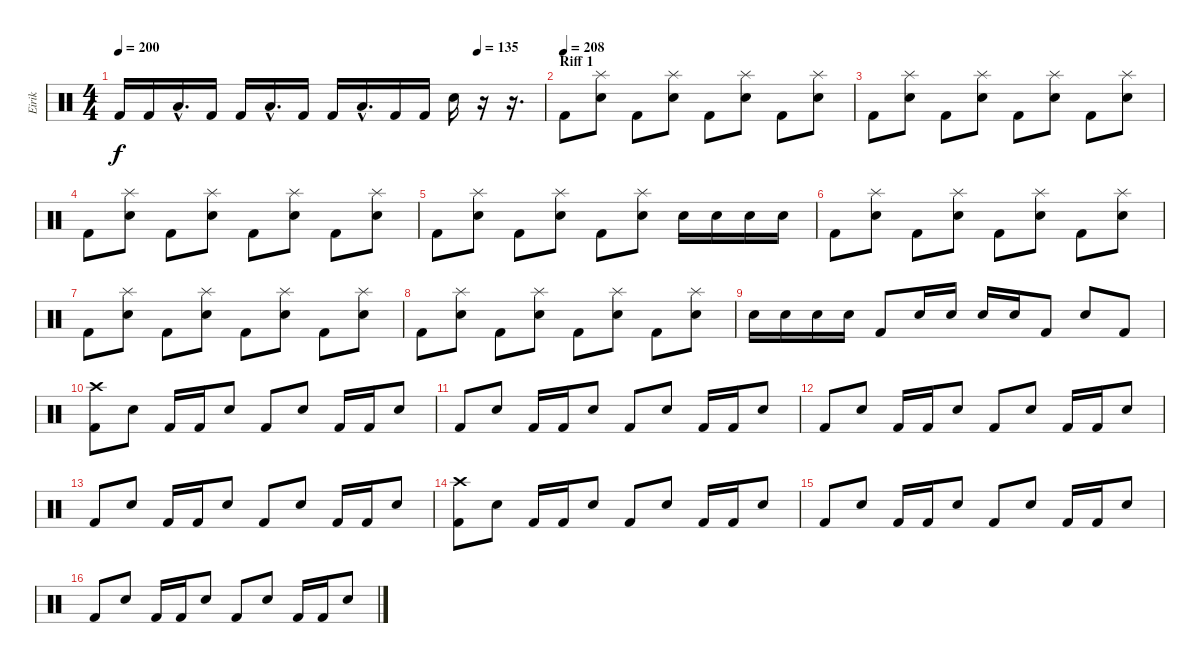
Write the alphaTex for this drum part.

\track ("Eirik" "Eirik") {instrument percussion}
\staff {score}
\articulation defaults
\ts (4 4)
\tempo 200
\tempo (135 0.84375)
\tempo 200
\clef neutral
\ks c "Kick (hit) 2".16{dy f} "Kick (hit) 2".16 "Low Tom (hit)"{hac}.16{d} "Kick (hit) 2".16 "Kick (hit) 2".16 "Low Tom (hit)"{hac}.16{d} "Kick (hit) 2".16 "Kick (hit) 2".16 "Low Tom (hit)"{hac}.16{d} "Kick (hit) 2".16 "Kick (hit) 2".16 "Snare (hit) 2".16
r.16 r.16{d} |
\section ("" "Riff 1")
\tempo (208)
"Kick (hit) 2".8 ("Splash (hit)" "Snare (hit) 2").8 "Kick (hit) 2".8 ("Splash (hit)" "Snare (hit) 2").8 "Kick (hit) 2".8 ("Splash (hit)" "Snare (hit) 2").8 "Kick (hit) 2".8 ("Splash (hit)" "Snare (hit) 2").8 |
"Kick (hit) 2".8 ("Splash (hit)" "Snare (hit) 2").8 "Kick (hit) 2".8 ("Splash (hit)" "Snare (hit) 2").8 "Kick (hit) 2".8 ("Splash (hit)" "Snare (hit) 2").8 "Kick (hit) 2".8 ("Splash (hit)" "Snare (hit) 2").8 |
"Kick (hit) 2".8 ("Splash (hit)" "Snare (hit) 2").8 "Kick (hit) 2".8 ("Splash (hit)" "Snare (hit) 2").8 "Kick (hit) 2".8 ("Splash (hit)" "Snare (hit) 2").8 "Kick (hit) 2".8 ("Splash (hit)" "Snare (hit) 2").8 |
"Kick (hit) 2".8 ("Splash (hit)" "Snare (hit) 2").8 "Kick (hit) 2".8 ("Splash (hit)" "Snare (hit) 2").8 "Kick (hit) 2".8 ("Splash (hit)" "Snare (hit) 2").8 "Snare (hit) 2".16 "Snare (hit) 2".16 "Snare (hit) 2".16 "Snare (hit) 2".16 |
"Kick (hit) 2".8 ("Splash (hit)" "Snare (hit) 2").8 "Kick (hit) 2".8 ("Splash (hit)" "Snare (hit) 2").8 "Kick (hit) 2".8 ("Splash (hit)" "Snare (hit) 2").8 "Kick (hit) 2".8 ("Splash (hit)" "Snare (hit) 2").8 |
"Kick (hit) 2".8 ("Splash (hit)" "Snare (hit) 2").8 "Kick (hit) 2".8 ("Splash (hit)" "Snare (hit) 2").8 "Kick (hit) 2".8 ("Splash (hit)" "Snare (hit) 2").8 "Kick (hit) 2".8 ("Splash (hit)" "Snare (hit) 2").8 |
"Kick (hit) 2".8 ("Splash (hit)" "Snare (hit) 2").8 "Kick (hit) 2".8 ("Splash (hit)" "Snare (hit) 2").8 "Kick (hit) 2".8 ("Splash (hit)" "Snare (hit) 2").8 "Kick (hit) 2".8 ("Splash (hit)" "Snare (hit) 2").8 |
"Snare (hit) 2".16 "Snare (hit) 2".16 "Snare (hit) 2".16 "Snare (hit) 2".16 "Kick (hit) 2".8 "Snare (hit) 2".16 "Snare (hit) 2".16 "Snare (hit) 2".16 "Snare (hit) 2".16 "Kick (hit) 2".8 "Snare (hit) 2".8 "Kick (hit) 2".8 |
("Crash high (hit)" "Kick (hit) 2").8 "Snare (hit) 2".8 "Kick (hit) 2".16 "Kick (hit) 2".16 "Snare (hit) 2".8 "Kick (hit) 2".8 "Snare (hit) 2".8 "Kick (hit) 2".16 "Kick (hit) 2".16 "Snare (hit) 2".8 |
"Kick (hit) 2".8 "Snare (hit) 2".8 "Kick (hit) 2".16 "Kick (hit) 2".16 "Snare (hit) 2".8 "Kick (hit) 2".8 "Snare (hit) 2".8 "Kick (hit) 2".16 "Kick (hit) 2".16 "Snare (hit) 2".8 |
"Kick (hit) 2".8 "Snare (hit) 2".8 "Kick (hit) 2".16 "Kick (hit) 2".16 "Snare (hit) 2".8 "Kick (hit) 2".8 "Snare (hit) 2".8 "Kick (hit) 2".16 "Kick (hit) 2".16 "Snare (hit) 2".8 |
"Kick (hit) 2".8 "Snare (hit) 2".8 "Kick (hit) 2".16 "Kick (hit) 2".16 "Snare (hit) 2".8 "Kick (hit) 2".8 "Snare (hit) 2".8 "Kick (hit) 2".16 "Kick (hit) 2".16 "Snare (hit) 2".8 |
("Crash high (hit)" "Kick (hit) 2").8 "Snare (hit) 2".8 "Kick (hit) 2".16 "Kick (hit) 2".16 "Snare (hit) 2".8 "Kick (hit) 2".8 "Snare (hit) 2".8 "Kick (hit) 2".16 "Kick (hit) 2".16 "Snare (hit) 2".8 |
"Kick (hit) 2".8 "Snare (hit) 2".8 "Kick (hit) 2".16 "Kick (hit) 2".16 "Snare (hit) 2".8 "Kick (hit) 2".8 "Snare (hit) 2".8 "Kick (hit) 2".16 "Kick (hit) 2".16 "Snare (hit) 2".8 |
"Kick (hit) 2".8 "Snare (hit) 2".8 "Kick (hit) 2".16 "Kick (hit) 2".16 "Snare (hit) 2".8 "Kick (hit) 2".8 "Snare (hit) 2".8 "Kick (hit) 2".16 "Kick (hit) 2".16 "Snare (hit) 2".8
